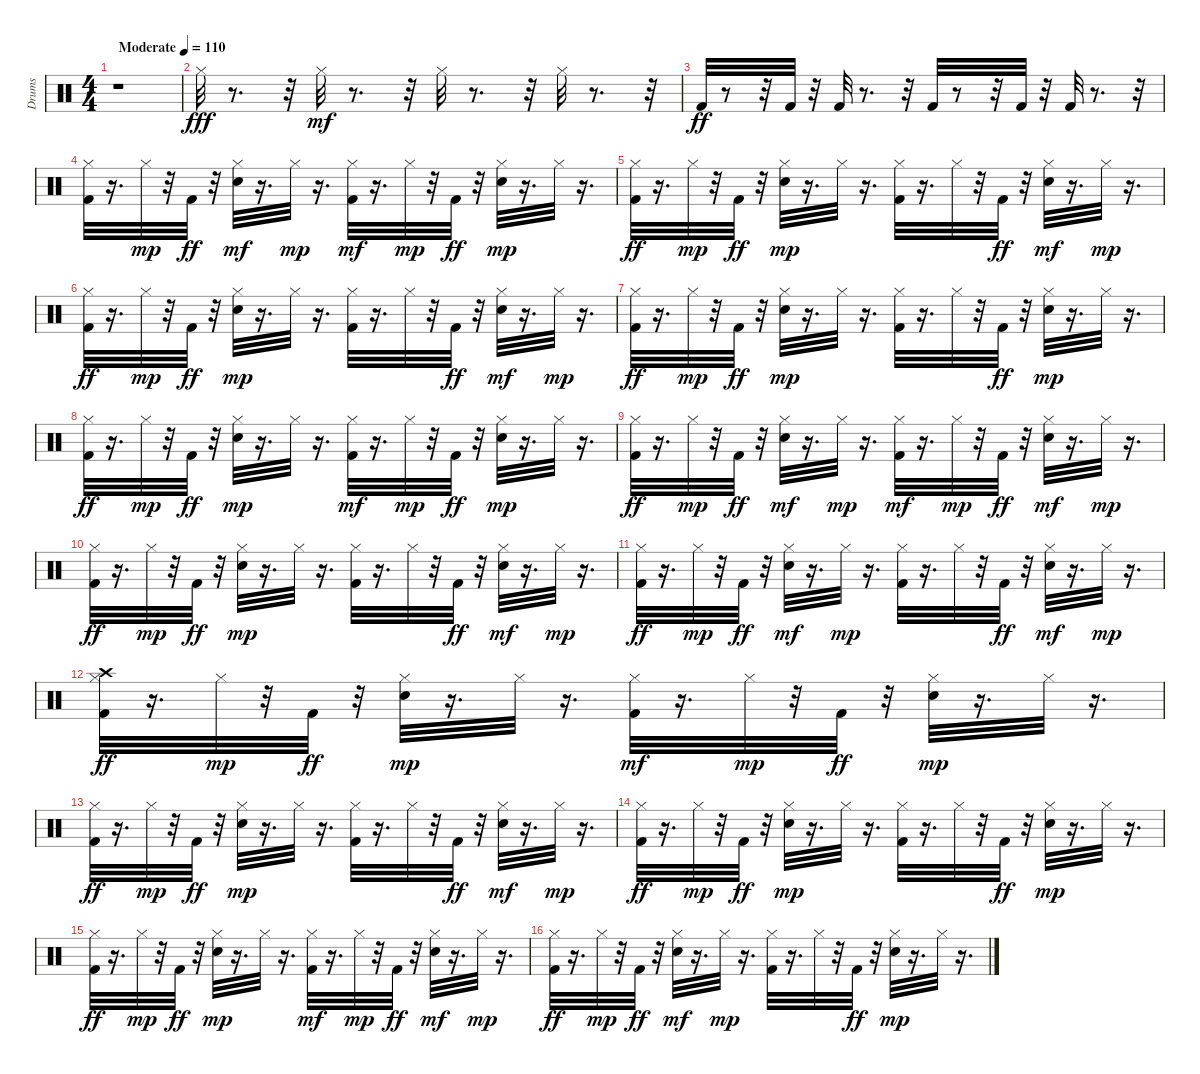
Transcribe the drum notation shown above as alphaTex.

\track ("Drums   " "Drums   ") {instrument percussion}
\staff {score}
\articulation defaults
\ts (4 4)
\tempo (110 "Moderate")
\clef neutral
\ks c
r.1{dy fff} |
"Hi-Hat (closed)".32 r.8{d} r.32 "Hi-Hat (closed)".32{dy mf} r.8{d} r.32 "Hi-Hat (closed)".32 r.8{d} r.32 "Hi-Hat (closed)".32 r.8{d} r.32 |
"Kick (hit) 2".32{dy ff} r.8 r.32 "Kick (hit) 2".32 r.32 "Kick (hit) 2".32 r.8{d} r.32 "Kick (hit) 2".32 r.8 r.32 "Kick (hit) 2".32 r.32 "Kick (hit) 2".32 r.8{d} r.32 |
("Hi-Hat (closed)" "Kick (hit) 2").32 r.16{d} "Hi-Hat (closed)".32{dy mp} r.32 "Kick (hit) 2".32{dy ff} r.32 ("Snare (hit) 2" "Hi-Hat (closed)").32{dy mf} r.16{d} "Hi-Hat (closed)".32{dy mp} r.16{d} ("Kick (hit) 2" "Hi-Hat (closed)").32{dy mf} r.16{d} "Hi-Hat (closed)".32{dy mp} r.32 "Kick (hit) 2".32{dy ff} r.32 ("Snare (hit) 2" "Hi-Hat (closed)").32{dy mp} r.16{d} "Hi-Hat (closed)".32 r.16{d} |
("Hi-Hat (closed)" "Kick (hit) 2").32{dy ff} r.16{d} "Hi-Hat (closed)".32{dy mp} r.32 "Kick (hit) 2".32{dy ff} r.32 ("Snare (hit) 2" "Hi-Hat (closed)").32{dy mp} r.16{d} "Hi-Hat (closed)".32 r.16{d} ("Kick (hit) 2" "Hi-Hat (closed)").32 r.16{d} "Hi-Hat (closed)".32 r.32 "Kick (hit) 2".32{dy ff} r.32 ("Snare (hit) 2" "Hi-Hat (closed)").32{dy mf} r.16{d} "Hi-Hat (closed)".32{dy mp} r.16{d} |
("Hi-Hat (closed)" "Kick (hit) 2").32{dy ff} r.16{d} "Hi-Hat (closed)".32{dy mp} r.32 "Kick (hit) 2".32{dy ff} r.32 ("Snare (hit) 2" "Hi-Hat (closed)").32{dy mp} r.16{d} "Hi-Hat (closed)".32 r.16{d} ("Kick (hit) 2" "Hi-Hat (closed)").32 r.16{d} "Hi-Hat (closed)".32 r.32 "Kick (hit) 2".32{dy ff} r.32 ("Snare (hit) 2" "Hi-Hat (closed)").32{dy mf} r.16{d} "Hi-Hat (closed)".32{dy mp} r.16{d} |
("Hi-Hat (closed)" "Kick (hit) 2").32{dy ff} r.16{d} "Hi-Hat (closed)".32{dy mp} r.32 "Kick (hit) 2".32{dy ff} r.32 ("Snare (hit) 2" "Hi-Hat (closed)").32{dy mp} r.16{d} "Hi-Hat (closed)".32 r.16{d} ("Kick (hit) 2" "Hi-Hat (closed)").32 r.16{d} "Hi-Hat (closed)".32 r.32 "Kick (hit) 2".32{dy ff} r.32 ("Snare (hit) 2" "Hi-Hat (closed)").32{dy mp} r.16{d} "Hi-Hat (closed)".32 r.16{d} |
("Hi-Hat (closed)" "Kick (hit) 2").32{dy ff} r.16{d} "Hi-Hat (closed)".32{dy mp} r.32 "Kick (hit) 2".32{dy ff} r.32 ("Snare (hit) 2" "Hi-Hat (closed)").32{dy mp} r.16{d} "Hi-Hat (closed)".32 r.16{d} ("Kick (hit) 2" "Hi-Hat (closed)").32{dy mf} r.16{d} "Hi-Hat (closed)".32{dy mp} r.32 "Kick (hit) 2".32{dy ff} r.32 ("Snare (hit) 2" "Hi-Hat (closed)").32{dy mp} r.16{d} "Hi-Hat (closed)".32 r.16{d} |
("Hi-Hat (closed)" "Kick (hit) 2").32{dy ff} r.16{d} "Hi-Hat (closed)".32{dy mp} r.32 "Kick (hit) 2".32{dy ff} r.32 ("Snare (hit) 2" "Hi-Hat (closed)").32{dy mf} r.16{d} "Hi-Hat (closed)".32{dy mp} r.16{d} ("Kick (hit) 2" "Hi-Hat (closed)").32{dy mf} r.16{d} "Hi-Hat (closed)".32{dy mp} r.32 "Kick (hit) 2".32{dy ff} r.32 ("Snare (hit) 2" "Hi-Hat (closed)").32{dy mf} r.16{d} "Hi-Hat (closed)".32{dy mp} r.16{d} |
("Hi-Hat (closed)" "Kick (hit) 2").32{dy ff} r.16{d} "Hi-Hat (closed)".32{dy mp} r.32 "Kick (hit) 2".32{dy ff} r.32 ("Snare (hit) 2" "Hi-Hat (closed)").32{dy mp} r.16{d} "Hi-Hat (closed)".32 r.16{d} ("Kick (hit) 2" "Hi-Hat (closed)").32 r.16{d} "Hi-Hat (closed)".32 r.32 "Kick (hit) 2".32{dy ff} r.32 ("Snare (hit) 2" "Hi-Hat (closed)").32{dy mf} r.16{d} "Hi-Hat (closed)".32{dy mp} r.16{d} |
("Hi-Hat (closed)" "Kick (hit) 2").32{dy ff} r.16{d} "Hi-Hat (closed)".32{dy mp} r.32 "Kick (hit) 2".32{dy ff} r.32 ("Snare (hit) 2" "Hi-Hat (closed)").32{dy mf} r.16{d} "Hi-Hat (closed)".32{dy mp} r.16{d} ("Kick (hit) 2" "Hi-Hat (closed)").32 r.16{d} "Hi-Hat (closed)".32 r.32 "Kick (hit) 2".32{dy ff} r.32 ("Snare (hit) 2" "Hi-Hat (closed)").32{dy mf} r.16{d} "Hi-Hat (closed)".32{dy mp} r.16{d} |
("Crash high (hit)" "Hi-Hat (closed)" "Kick (hit) 2").32{dy ff} r.16{d} "Hi-Hat (closed)".32{dy mp} r.32 "Kick (hit) 2".32{dy ff} r.32 ("Snare (hit) 2" "Hi-Hat (closed)").32{dy mp} r.16{d} "Hi-Hat (closed)".32 r.16{d} ("Kick (hit) 2" "Hi-Hat (closed)").32{dy mf} r.16{d} "Hi-Hat (closed)".32{dy mp} r.32 "Kick (hit) 2".32{dy ff} r.32 ("Snare (hit) 2" "Hi-Hat (closed)").32{dy mp} r.16{d} "Hi-Hat (closed)".32 r.16{d} |
("Hi-Hat (closed)" "Kick (hit) 2").32{dy ff} r.16{d} "Hi-Hat (closed)".32{dy mp} r.32 "Kick (hit) 2".32{dy ff} r.32 ("Snare (hit) 2" "Hi-Hat (closed)").32{dy mp} r.16{d} "Hi-Hat (closed)".32 r.16{d} ("Kick (hit) 2" "Hi-Hat (closed)").32 r.16{d} "Hi-Hat (closed)".32 r.32 "Kick (hit) 2".32{dy ff} r.32 ("Snare (hit) 2" "Hi-Hat (closed)").32{dy mf} r.16{d} "Hi-Hat (closed)".32{dy mp} r.16{d} |
("Hi-Hat (closed)" "Kick (hit) 2").32{dy ff} r.16{d} "Hi-Hat (closed)".32{dy mp} r.32 "Kick (hit) 2".32{dy ff} r.32 ("Snare (hit) 2" "Hi-Hat (closed)").32{dy mp} r.16{d} "Hi-Hat (closed)".32 r.16{d} ("Kick (hit) 2" "Hi-Hat (closed)").32 r.16{d} "Hi-Hat (closed)".32 r.32 "Kick (hit) 2".32{dy ff} r.32 ("Snare (hit) 2" "Hi-Hat (closed)").32{dy mp} r.16{d} "Hi-Hat (closed)".32 r.16{d} |
("Hi-Hat (closed)" "Kick (hit) 2").32{dy ff} r.16{d} "Hi-Hat (closed)".32{dy mp} r.32 "Kick (hit) 2".32{dy ff} r.32 ("Snare (hit) 2" "Hi-Hat (closed)").32{dy mp} r.16{d} "Hi-Hat (closed)".32 r.16{d} ("Kick (hit) 2" "Hi-Hat (closed)").32{dy mf} r.16{d} "Hi-Hat (closed)".32{dy mp} r.32 "Kick (hit) 2".32{dy ff} r.32 ("Snare (hit) 2" "Hi-Hat (closed)").32{dy mf} r.16{d} "Hi-Hat (closed)".32{dy mp} r.16{d} |
("Hi-Hat (closed)" "Kick (hit) 2").32{dy ff} r.16{d} "Hi-Hat (closed)".32{dy mp} r.32 "Kick (hit) 2".32{dy ff} r.32 ("Snare (hit) 2" "Hi-Hat (closed)").32{dy mf} r.16{d} "Hi-Hat (closed)".32{dy mp} r.16{d} ("Kick (hit) 2" "Hi-Hat (closed)").32 r.16{d} "Hi-Hat (closed)".32 r.32 "Kick (hit) 2".32{dy ff} r.32 ("Snare (hit) 2" "Hi-Hat (closed)").32{dy mp} r.16{d} "Hi-Hat (closed)".32 r.16{d}
